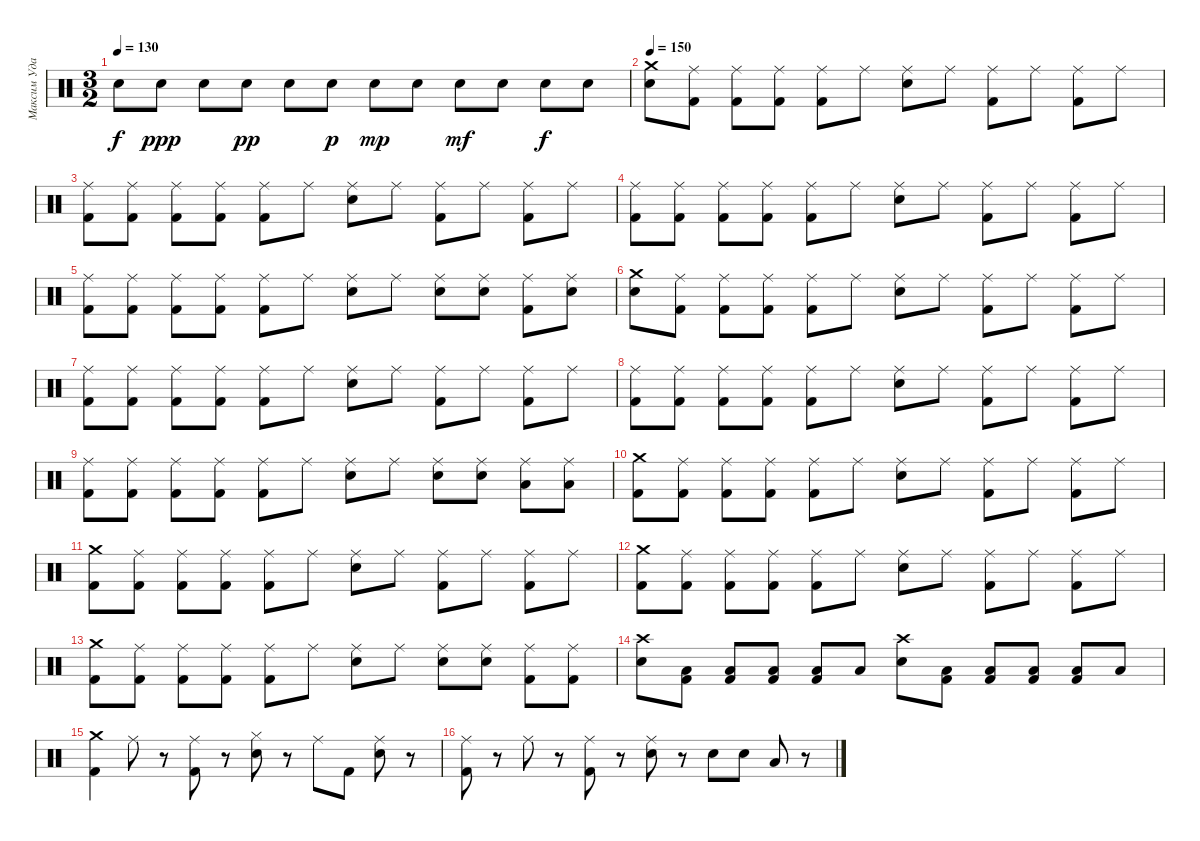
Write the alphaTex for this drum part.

\track ("Максим Удалов" "Максим Уда") {instrument percussion}
\staff {score}
\articulation defaults
\ts (3 2)
\tempo 130
\clef neutral
\ks c "Electric Snare (hit)".8{dy f volume 15} "Electric Snare (hit)".8{dy ppp} "Electric Snare (hit)".8 "Electric Snare (hit)".8{dy pp} "Electric Snare (hit)".8 "Electric Snare (hit)".8{dy p} "Electric Snare (hit)".8{dy mp} "Electric Snare (hit)".8 "Electric Snare (hit)".8{dy mf} "Electric Snare (hit)".8 "Electric Snare (hit)".8{dy f} "Electric Snare (hit)".8
|
\tempo 150
("Crash medium (hit)" "Electric Snare (hit)").8 ("Ride (middle)" "Kick (hit) 2").8 ("Ride (middle)" "Kick (hit) 2").8 ("Kick (hit) 2" "Ride (middle)").8 ("Ride (middle)" "Kick (hit) 2").8 "Ride (middle)".8 ("Electric Snare (hit)" "Ride (middle)").8 "Ride (middle)".8 ("Kick (hit) 2" "Ride (middle)").8 "Ride (middle)".8 ("Ride (middle)" "Kick (hit) 2").8 "Ride (middle)".8 |
("Kick (hit) 2" "Ride (middle)").8 ("Ride (middle)" "Kick (hit) 2").8 ("Ride (middle)" "Kick (hit) 2").8 ("Ride (middle)" "Kick (hit) 2").8 ("Kick (hit) 2" "Ride (middle)").8 "Ride (middle)".8 ("Electric Snare (hit)" "Ride (middle)").8 "Ride (middle)".8 ("Kick (hit) 2" "Ride (middle)").8 "Ride (middle)".8 ("Kick (hit) 2" "Ride (middle)").8 "Ride (middle)".8 |
("Kick (hit) 2" "Ride (middle)").8 ("Kick (hit) 2" "Ride (middle)").8 ("Ride (middle)" "Kick (hit) 2").8 ("Ride (middle)" "Kick (hit) 2").8 ("Kick (hit) 2" "Ride (middle)").8 "Ride (middle)".8 ("Electric Snare (hit)" "Ride (middle)").8 "Ride (middle)".8 ("Ride (middle)" "Kick (hit) 2").8 "Ride (middle)".8 ("Ride (middle)" "Kick (hit) 2").8 "Ride (middle)".8 |
("Kick (hit) 2" "Ride (middle)").8 ("Ride (middle)" "Kick (hit) 2").8 ("Kick (hit) 2" "Ride (middle)").8 ("Kick (hit) 2" "Ride (middle)").8 ("Ride (middle)" "Kick (hit) 2").8 "Ride (middle)".8 ("Ride (middle)" "Electric Snare (hit)").8 "Ride (middle)".8 ("Ride (middle)" "Electric Snare (hit)").8 ("Electric Snare (hit)" "Ride (middle)").8 ("Kick (hit) 2" "Ride (middle)").8 ("Electric Snare (hit)" "Ride (middle)").8 |
("Crash medium (hit)" "Electric Snare (hit)").8 ("Ride (middle)" "Kick (hit) 2").8 ("Kick (hit) 2" "Ride (middle)").8 ("Kick (hit) 2" "Ride (middle)").8 ("Kick (hit) 2" "Ride (middle)").8 "Ride (middle)".8 ("Electric Snare (hit)" "Ride (middle)").8 "Ride (middle)".8 ("Kick (hit) 2" "Ride (middle)").8 "Ride (middle)".8 ("Kick (hit) 2" "Ride (middle)").8 "Ride (middle)".8 |
("Kick (hit) 2" "Ride (middle)").8 ("Kick (hit) 2" "Ride (middle)").8 ("Ride (middle)" "Kick (hit) 2").8 ("Kick (hit) 2" "Ride (middle)").8 ("Kick (hit) 2" "Ride (middle)").8 "Ride (middle)".8 ("Ride (middle)" "Electric Snare (hit)").8 "Ride (middle)".8 ("Ride (middle)" "Kick (hit) 2").8 "Ride (middle)".8 ("Ride (middle)" "Kick (hit) 2").8 "Ride (middle)".8 |
("Ride (middle)" "Kick (hit) 2").8 ("Ride (middle)" "Kick (hit) 2").8 ("Ride (middle)" "Kick (hit) 2").8 ("Kick (hit) 2" "Ride (middle)").8 ("Kick (hit) 2" "Ride (middle)").8 "Ride (middle)".8 ("Electric Snare (hit)" "Ride (middle)").8 "Ride (middle)".8 ("Ride (middle)" "Kick (hit) 2").8 "Ride (middle)".8 ("Ride (middle)" "Kick (hit) 2").8 "Ride (middle)".8 |
("Kick (hit) 2" "Ride (middle)").8 ("Kick (hit) 2" "Ride (middle)").8 ("Kick (hit) 2" "Ride (middle)").8 ("Kick (hit) 2" "Ride (middle)").8 ("Ride (middle)" "Kick (hit) 2").8 "Ride (middle)".8 ("Ride (middle)" "Electric Snare (hit)").8 "Ride (middle)".8 ("Electric Snare (hit)" "Ride (middle)").8 ("Electric Snare (hit)" "Ride (middle)").8 ("Low Floor Tom (hit)" "Ride (middle)").8 ("Ride (middle)" "Low Floor Tom (hit)").8 |
("Crash medium (hit)" "Kick (hit) 2").8 ("Ride (middle)" "Kick (hit) 2").8 ("Kick (hit) 2" "Ride (middle)").8 ("Kick (hit) 2" "Ride (middle)").8 ("Kick (hit) 2" "Ride (middle)").8 "Ride (middle)".8 ("Electric Snare (hit)" "Ride (middle)").8 "Ride (middle)".8 ("Kick (hit) 2" "Ride (middle)").8 "Ride (middle)".8 ("Kick (hit) 2" "Ride (middle)").8 "Ride (middle)".8 |
("Crash medium (hit)" "Kick (hit) 2").8 ("Kick (hit) 2" "Ride (middle)").8 ("Kick (hit) 2" "Ride (middle)").8 ("Kick (hit) 2" "Ride (middle)").8 ("Kick (hit) 2" "Ride (middle)").8 "Ride (middle)".8 ("Electric Snare (hit)" "Ride (middle)").8 "Ride (middle)".8 ("Ride (middle)" "Kick (hit) 2").8 "Ride (middle)".8 ("Ride (middle)" "Kick (hit) 2").8 "Ride (middle)".8 |
("Kick (hit) 2" "Crash medium (hit)").8 ("Ride (middle)" "Kick (hit) 2").8 ("Kick (hit) 2" "Ride (middle)").8 ("Ride (middle)" "Kick (hit) 2").8 ("Ride (middle)" "Kick (hit) 2").8 "Ride (middle)".8 ("Ride (middle)" "Electric Snare (hit)").8 "Ride (middle)".8 ("Ride (middle)" "Kick (hit) 2").8 "Ride (middle)".8 ("Ride (middle)" "Kick (hit) 2").8 "Ride (middle)".8 |
("Crash medium (hit)" "Kick (hit) 2").8 ("Kick (hit) 2" "Ride (middle)").8 ("Ride (middle)" "Kick (hit) 2").8 ("Ride (middle)" "Kick (hit) 2").8 ("Kick (hit) 2" "Ride (middle)").8 "Ride (middle)".8 ("Electric Snare (hit)" "Ride (middle)").8 "Ride (middle)".8 ("Electric Snare (hit)" "Ride (middle)").8 ("Electric Snare (hit)" "Ride (middle)").8 ("Ride (middle)" "Kick (hit) 2").8 ("Ride (middle)" "Kick (hit) 2").8 |
("Crash high (hit)" "Electric Snare (hit)").8 ("Low Floor Tom (hit)" "Kick (hit) 2").8 ("Kick (hit) 2" "Low Floor Tom (hit)").8 ("Kick (hit) 2" "Low Floor Tom (hit)").8 ("Low Floor Tom (hit)" "Kick (hit) 2").8 "Low Floor Tom (hit)".8 ("Crash high (hit)" "Electric Snare (hit)").8 ("Kick (hit) 2" "Low Floor Tom (hit)").8 ("Low Floor Tom (hit)" "Kick (hit) 2").8 ("Low Floor Tom (hit)" "Kick (hit) 2").8 ("Low Floor Tom (hit)" "Kick (hit) 2").8 "Low Floor Tom (hit)".8 |
("Crash medium (hit)" "Kick (hit) 2").4 "Ride (middle)".8 r.8 ("Ride (middle)" "Kick (hit) 2").8 r.8 ("Hi-Hat (closed)" "Electric Snare (hit)").8 r.8 "Ride (middle)".8 "Kick (hit) 2".8 ("Ride (middle)" "Electric Snare (hit)").8 r.8 |
("Kick (hit) 2" "Ride (middle)").8 r.8 "Ride (middle)".8 r.8 ("Ride (middle)" "Kick (hit) 2").8 r.8 ("Ride (middle)" "Electric Snare (hit)").8 r.8 "Electric Snare (hit)".8 "Electric Snare (hit)".8 "Low Floor Tom (hit)".8 r.8
